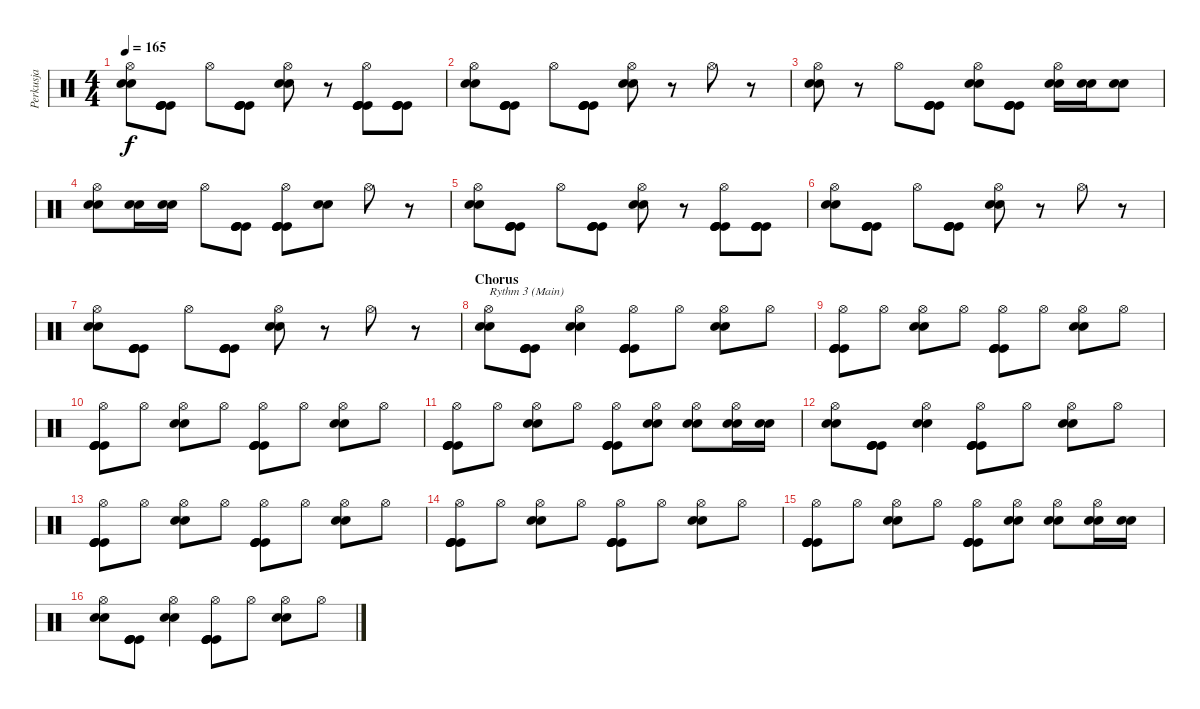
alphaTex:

\track ("Perkusja" "Perkusja") {instrument percussion}
\staff {score}
\articulation defaults
\ts (4 4)
\tempo 165
\clef neutral
\ks c
("Hi-Hat (open)" "Snare (hit) 2" "Snare (hit) 2").8{dy f} ("Kick (hit)" "Kick (hit)" "Kick (hit)" "Kick (hit)").8 "Hi-Hat (open)".8 ("Kick (hit)" "Kick (hit)" "Kick (hit)" "Kick (hit)").8 ("Hi-Hat (open)" "Snare (hit) 2" "Snare (hit) 2").8 r.8 ("Hi-Hat (open)" "Kick (hit)" "Kick (hit)" "Kick (hit)" "Kick (hit)").8 ("Kick (hit)" "Kick (hit)" "Kick (hit)" "Kick (hit)").8 |
("Hi-Hat (open)" "Snare (hit) 2" "Snare (hit) 2").8 ("Kick (hit)" "Kick (hit)" "Kick (hit)" "Kick (hit)").8 "Hi-Hat (open)".8 ("Kick (hit)" "Kick (hit)" "Kick (hit)" "Kick (hit)").8 ("Hi-Hat (open)" "Snare (hit) 2" "Snare (hit) 2").8 r.8 "Hi-Hat (open)".8 r.8 |
("Hi-Hat (open)" "Snare (hit) 2" "Snare (hit) 2").8 r.8 "Hi-Hat (open)".8 ("Kick (hit)" "Kick (hit)" "Kick (hit)" "Kick (hit)").8 ("Hi-Hat (open)" "Snare (hit) 2" "Snare (hit) 2").8 ("Kick (hit)" "Kick (hit)" "Kick (hit)" "Kick (hit)").8 ("Hi-Hat (open)" "Snare (hit) 2" "Snare (hit) 2").16 ("Snare (hit) 2" "Snare (hit) 2").16 ("Snare (hit) 2" "Snare (hit) 2").8 |
("Hi-Hat (open)" "Snare (hit) 2" "Snare (hit) 2").8 ("Snare (hit) 2" "Snare (hit) 2").16 ("Snare (hit) 2" "Snare (hit) 2").16 "Hi-Hat (open)".8 ("Kick (hit)" "Kick (hit)" "Kick (hit)" "Kick (hit)").8 ("Hi-Hat (open)" "Kick (hit)" "Kick (hit)" "Kick (hit)" "Kick (hit)").8 ("Snare (hit) 2" "Snare (hit) 2").8 "Hi-Hat (open)".8 r.8 |
("Hi-Hat (open)" "Snare (hit) 2" "Snare (hit) 2").8 ("Kick (hit)" "Kick (hit)" "Kick (hit)" "Kick (hit)").8 "Hi-Hat (open)".8 ("Kick (hit)" "Kick (hit)" "Kick (hit)" "Kick (hit)").8 ("Hi-Hat (open)" "Snare (hit) 2" "Snare (hit) 2").8 r.8 ("Hi-Hat (open)" "Kick (hit)" "Kick (hit)" "Kick (hit)" "Kick (hit)").8 ("Kick (hit)" "Kick (hit)" "Kick (hit)" "Kick (hit)").8 |
("Hi-Hat (open)" "Snare (hit) 2" "Snare (hit) 2").8 ("Kick (hit)" "Kick (hit)" "Kick (hit)" "Kick (hit)").8 "Hi-Hat (open)".8 ("Kick (hit)" "Kick (hit)" "Kick (hit)" "Kick (hit)").8 ("Hi-Hat (open)" "Snare (hit) 2" "Snare (hit) 2").8 r.8 "Hi-Hat (open)".8 r.8 |
("Hi-Hat (open)" "Snare (hit) 2" "Snare (hit) 2").8 ("Kick (hit)" "Kick (hit)" "Kick (hit)" "Kick (hit)").8 "Hi-Hat (open)".8 ("Kick (hit)" "Kick (hit)" "Kick (hit)" "Kick (hit)").8 ("Hi-Hat (open)" "Snare (hit) 2" "Snare (hit) 2").8 r.8 "Hi-Hat (open)".8 r.8 |
\section ("" "Chorus")
("Hi-Hat (open)" "Snare (hit) 2" "Snare (hit) 2").8{txt "Rythm 3 (Main)"} ("Kick (hit)" "Kick (hit)" "Kick (hit)" "Kick (hit)").8 ("Hi-Hat (open)" "Snare (hit) 2" "Snare (hit) 2").4 ("Hi-Hat (open)" "Kick (hit)" "Kick (hit)" "Kick (hit)" "Kick (hit)").8 "Hi-Hat (open)".8 ("Hi-Hat (open)" "Snare (hit) 2" "Snare (hit) 2").8 "Hi-Hat (open)".8 |
("Hi-Hat (open)" "Kick (hit)" "Kick (hit)" "Kick (hit)" "Kick (hit)").8 "Hi-Hat (open)".8 ("Hi-Hat (open)" "Snare (hit) 2" "Snare (hit) 2").8 "Hi-Hat (open)".8 ("Hi-Hat (open)" "Kick (hit)" "Kick (hit)" "Kick (hit)" "Kick (hit)").8 "Hi-Hat (open)".8 ("Hi-Hat (open)" "Snare (hit) 2" "Snare (hit) 2").8 "Hi-Hat (open)".8 |
("Hi-Hat (open)" "Kick (hit)" "Kick (hit)" "Kick (hit)" "Kick (hit)").8 "Hi-Hat (open)".8 ("Hi-Hat (open)" "Snare (hit) 2" "Snare (hit) 2").8 "Hi-Hat (open)".8 ("Hi-Hat (open)" "Kick (hit)" "Kick (hit)" "Kick (hit)" "Kick (hit)").8 "Hi-Hat (open)".8 ("Hi-Hat (open)" "Snare (hit) 2" "Snare (hit) 2").8 "Hi-Hat (open)".8 |
("Hi-Hat (open)" "Kick (hit)" "Kick (hit)" "Kick (hit)" "Kick (hit)").8 "Hi-Hat (open)".8 ("Hi-Hat (open)" "Snare (hit) 2" "Snare (hit) 2").8 "Hi-Hat (open)".8 ("Hi-Hat (open)" "Kick (hit)" "Kick (hit)" "Kick (hit)" "Kick (hit)").8 ("Hi-Hat (open)" "Snare (hit) 2" "Snare (hit) 2").8 ("Hi-Hat (open)" "Snare (hit) 2" "Snare (hit) 2").8 ("Hi-Hat (open)" "Snare (hit) 2" "Snare (hit) 2").16 ("Snare (hit) 2" "Snare (hit) 2").16 |
("Hi-Hat (open)" "Snare (hit) 2" "Snare (hit) 2").8 ("Kick (hit)" "Kick (hit)" "Kick (hit)" "Kick (hit)").8 ("Hi-Hat (open)" "Snare (hit) 2" "Snare (hit) 2").4 ("Hi-Hat (open)" "Kick (hit)" "Kick (hit)" "Kick (hit)" "Kick (hit)").8 "Hi-Hat (open)".8 ("Hi-Hat (open)" "Snare (hit) 2" "Snare (hit) 2").8 "Hi-Hat (open)".8 |
("Hi-Hat (open)" "Kick (hit)" "Kick (hit)" "Kick (hit)" "Kick (hit)").8 "Hi-Hat (open)".8 ("Hi-Hat (open)" "Snare (hit) 2" "Snare (hit) 2").8 "Hi-Hat (open)".8 ("Hi-Hat (open)" "Kick (hit)" "Kick (hit)" "Kick (hit)" "Kick (hit)").8 "Hi-Hat (open)".8 ("Hi-Hat (open)" "Snare (hit) 2" "Snare (hit) 2").8 "Hi-Hat (open)".8 |
("Hi-Hat (open)" "Kick (hit)" "Kick (hit)" "Kick (hit)" "Kick (hit)").8 "Hi-Hat (open)".8 ("Hi-Hat (open)" "Snare (hit) 2" "Snare (hit) 2").8 "Hi-Hat (open)".8 ("Hi-Hat (open)" "Kick (hit)" "Kick (hit)" "Kick (hit)" "Kick (hit)").8 "Hi-Hat (open)".8 ("Hi-Hat (open)" "Snare (hit) 2" "Snare (hit) 2").8 "Hi-Hat (open)".8 |
("Hi-Hat (open)" "Kick (hit)" "Kick (hit)" "Kick (hit)" "Kick (hit)").8 "Hi-Hat (open)".8 ("Hi-Hat (open)" "Snare (hit) 2" "Snare (hit) 2").8 "Hi-Hat (open)".8 ("Hi-Hat (open)" "Kick (hit)" "Kick (hit)" "Kick (hit)" "Kick (hit)").8 ("Hi-Hat (open)" "Snare (hit) 2" "Snare (hit) 2").8 ("Hi-Hat (open)" "Snare (hit) 2" "Snare (hit) 2").8 ("Hi-Hat (open)" "Snare (hit) 2" "Snare (hit) 2").16 ("Snare (hit) 2" "Snare (hit) 2").16 |
("Hi-Hat (open)" "Snare (hit) 2" "Snare (hit) 2").8 ("Kick (hit)" "Kick (hit)" "Kick (hit)" "Kick (hit)").8 ("Hi-Hat (open)" "Snare (hit) 2" "Snare (hit) 2").4 ("Hi-Hat (open)" "Kick (hit)" "Kick (hit)" "Kick (hit)" "Kick (hit)").8 "Hi-Hat (open)".8 ("Hi-Hat (open)" "Snare (hit) 2" "Snare (hit) 2").8 "Hi-Hat (open)".8
